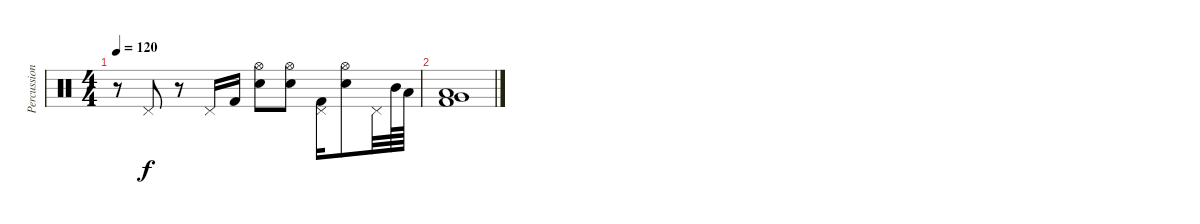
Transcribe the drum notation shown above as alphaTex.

\track ("Percussion" "Percussion") {instrument percussion}
\staff {score}
\articulation defaults
\ts (4 4)
\tempo 120
\clef neutral
\ks c
r.8{dy f} "Pedal Hi-Hat (hit)".8 r.8 "Pedal Hi-Hat (hit)".16 "Kick (hit) 2".16 ("Hi-Hat (open)" "Electric Snare (hit)").8 ("Hi-Hat (open)" "Electric Snare (hit)").8 ("Pedal Hi-Hat (hit)" "Kick (hit) 2").16 ("Hi-Hat (open)" "Electric Snare (hit)").8 "Pedal Hi-Hat (hit)".32 "Mid Tom (hit)".64 "Low Tom (hit)".64 |
("Low Tom (hit)" "Very Low Tom (hit)" "Kick (hit) 2").1{bu 60}
